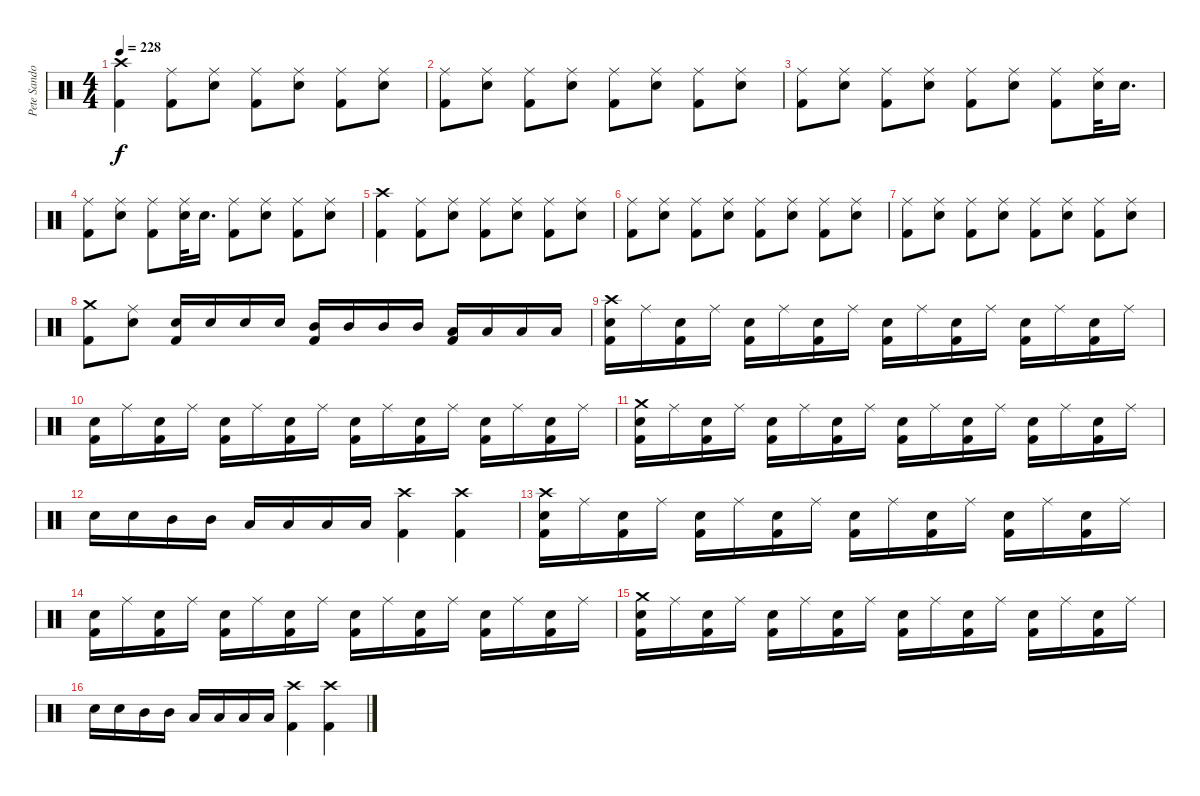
\track ("Pete Sandoval" "Pete Sando") {instrument percussion}
\staff {score}
\articulation defaults
\ts (4 4)
\tempo 228
\clef neutral
\ks c
("Crash high (hit)" "Kick (hit) 2").4{dy f} ("Kick (hit) 2" "Ride (middle)").8 ("Electric Snare (hit)" "Ride (middle)").8 ("Kick (hit) 2" "Ride (middle)").8 ("Electric Snare (hit)" "Ride (middle)").8 ("Kick (hit) 2" "Ride (middle)").8 ("Electric Snare (hit)" "Ride (middle)").8 |
("Kick (hit) 2" "Ride (middle)").8 ("Electric Snare (hit)" "Ride (middle)").8 ("Kick (hit) 2" "Ride (middle)").8 ("Electric Snare (hit)" "Ride (middle)").8 ("Kick (hit) 2" "Ride (middle)").8 ("Electric Snare (hit)" "Ride (middle)").8 ("Kick (hit) 2" "Ride (middle)").8 ("Electric Snare (hit)" "Ride (middle)").8 |
("Kick (hit) 2" "Ride (middle)").8 ("Electric Snare (hit)" "Ride (middle)").8 ("Kick (hit) 2" "Ride (middle)").8 ("Electric Snare (hit)" "Ride (middle)").8 ("Kick (hit) 2" "Ride (middle)").8 ("Electric Snare (hit)" "Ride (middle)").8 ("Kick (hit) 2" "Ride (middle)").8 ("Electric Snare (hit)" "Ride (middle)").32 "Electric Snare (hit)".16{d} |
("Kick (hit) 2" "Ride (middle)").8 ("Electric Snare (hit)" "Ride (middle)").8 ("Kick (hit) 2" "Ride (middle)").8 ("Electric Snare (hit)" "Ride (middle)").32 "Electric Snare (hit)".16{d} ("Kick (hit) 2" "Ride (middle)").8 ("Electric Snare (hit)" "Ride (middle)").8 ("Kick (hit) 2" "Ride (middle)").8 ("Electric Snare (hit)" "Ride (middle)").8 |
("Crash high (hit)" "Kick (hit) 2").4 ("Kick (hit) 2" "Ride (middle)").8 ("Electric Snare (hit)" "Ride (middle)").8 ("Kick (hit) 2" "Ride (middle)").8 ("Electric Snare (hit)" "Ride (middle)").8 ("Kick (hit) 2" "Ride (middle)").8 ("Electric Snare (hit)" "Ride (middle)").8 |
("Kick (hit) 2" "Ride (middle)").8 ("Electric Snare (hit)" "Ride (middle)").8 ("Kick (hit) 2" "Ride (middle)").8 ("Electric Snare (hit)" "Ride (middle)").8 ("Kick (hit) 2" "Ride (middle)").8 ("Electric Snare (hit)" "Ride (middle)").8 ("Kick (hit) 2" "Ride (middle)").8 ("Electric Snare (hit)" "Ride (middle)").8 |
("Kick (hit) 2" "Ride (middle)").8 ("Electric Snare (hit)" "Ride (middle)").8 ("Kick (hit) 2" "Ride (middle)").8 ("Electric Snare (hit)" "Ride (middle)").8 ("Kick (hit) 2" "Ride (middle)").8 ("Electric Snare (hit)" "Ride (middle)").8 ("Kick (hit) 2" "Ride (middle)").8 ("Electric Snare (hit)" "Ride (middle)").8 |
("Crash medium (hit)" "Kick (hit) 2").8 ("Electric Snare (hit)" "Ride (middle)").8 ("Kick (hit) 2" "Electric Snare (hit)").16 "Electric Snare (hit)".16 "Electric Snare (hit)".16 "Electric Snare (hit)".16 ("Kick (hit) 2" "Mid Tom (hit)").16 "Mid Tom (hit)".16 "Mid Tom (hit)".16 "Mid Tom (hit)".16 ("Kick (hit) 2" "Low Tom (hit)").16 "Low Tom (hit)".16 "Low Tom (hit)".16 "Low Tom (hit)".16 |
("Crash high (hit)" "Kick (hit) 2" "Electric Snare (hit)").16 "Ride (middle)".16 ("Kick (hit) 2" "Electric Snare (hit)").16 "Ride (middle)".16 ("Kick (hit) 2" "Electric Snare (hit)").16 "Ride (middle)".16 ("Kick (hit) 2" "Electric Snare (hit)").16 "Ride (middle)".16 ("Kick (hit) 2" "Electric Snare (hit)").16 "Ride (middle)".16 ("Kick (hit) 2" "Electric Snare (hit)").16 "Ride (middle)".16 ("Kick (hit) 2" "Electric Snare (hit)").16 "Ride (middle)".16 ("Kick (hit) 2" "Electric Snare (hit)").16 "Ride (middle)".16 |
("Kick (hit) 2" "Electric Snare (hit)").16 "Ride (middle)".16 ("Kick (hit) 2" "Electric Snare (hit)").16 "Ride (middle)".16 ("Kick (hit) 2" "Electric Snare (hit)").16 "Ride (middle)".16 ("Kick (hit) 2" "Electric Snare (hit)").16 "Ride (middle)".16 ("Kick (hit) 2" "Electric Snare (hit)").16 "Ride (middle)".16 ("Kick (hit) 2" "Electric Snare (hit)").16 "Ride (middle)".16 ("Kick (hit) 2" "Electric Snare (hit)").16 "Ride (middle)".16 ("Kick (hit) 2" "Electric Snare (hit)").16 "Ride (middle)".16 |
("Crash medium (hit)" "Kick (hit) 2" "Electric Snare (hit)").16 "Ride (middle)".16 ("Kick (hit) 2" "Electric Snare (hit)").16 "Ride (middle)".16 ("Kick (hit) 2" "Electric Snare (hit)").16 "Ride (middle)".16 ("Kick (hit) 2" "Electric Snare (hit)").16 "Ride (middle)".16 ("Kick (hit) 2" "Electric Snare (hit)").16 "Ride (middle)".16 ("Kick (hit) 2" "Electric Snare (hit)").16 "Ride (middle)".16 ("Kick (hit) 2" "Electric Snare (hit)").16 "Ride (middle)".16 ("Kick (hit) 2" "Electric Snare (hit)").16 "Ride (middle)".16 |
"Electric Snare (hit)".16 "Electric Snare (hit)".16 "Mid Tom (hit)".16 "Mid Tom (hit)".16 "Low Tom (hit)".16 "Low Tom (hit)".16 "Low Tom (hit)".16 "Low Tom (hit)".16 ("Crash high (hit)" "Kick (hit) 2").4 ("Crash high (hit)" "Kick (hit) 2").4 |
("Crash high (hit)" "Kick (hit) 2" "Electric Snare (hit)").16 "Ride (middle)".16 ("Kick (hit) 2" "Electric Snare (hit)").16 "Ride (middle)".16 ("Kick (hit) 2" "Electric Snare (hit)").16 "Ride (middle)".16 ("Kick (hit) 2" "Electric Snare (hit)").16 "Ride (middle)".16 ("Kick (hit) 2" "Electric Snare (hit)").16 "Ride (middle)".16 ("Kick (hit) 2" "Electric Snare (hit)").16 "Ride (middle)".16 ("Kick (hit) 2" "Electric Snare (hit)").16 "Ride (middle)".16 ("Kick (hit) 2" "Electric Snare (hit)").16 "Ride (middle)".16 |
("Kick (hit) 2" "Electric Snare (hit)").16 "Ride (middle)".16 ("Kick (hit) 2" "Electric Snare (hit)").16 "Ride (middle)".16 ("Kick (hit) 2" "Electric Snare (hit)").16 "Ride (middle)".16 ("Kick (hit) 2" "Electric Snare (hit)").16 "Ride (middle)".16 ("Kick (hit) 2" "Electric Snare (hit)").16 "Ride (middle)".16 ("Kick (hit) 2" "Electric Snare (hit)").16 "Ride (middle)".16 ("Kick (hit) 2" "Electric Snare (hit)").16 "Ride (middle)".16 ("Kick (hit) 2" "Electric Snare (hit)").16 "Ride (middle)".16 |
("Crash medium (hit)" "Kick (hit) 2" "Electric Snare (hit)").16 "Ride (middle)".16 ("Kick (hit) 2" "Electric Snare (hit)").16 "Ride (middle)".16 ("Kick (hit) 2" "Electric Snare (hit)").16 "Ride (middle)".16 ("Kick (hit) 2" "Electric Snare (hit)").16 "Ride (middle)".16 ("Kick (hit) 2" "Electric Snare (hit)").16 "Ride (middle)".16 ("Kick (hit) 2" "Electric Snare (hit)").16 "Ride (middle)".16 ("Kick (hit) 2" "Electric Snare (hit)").16 "Ride (middle)".16 ("Kick (hit) 2" "Electric Snare (hit)").16 "Ride (middle)".16 |
"Electric Snare (hit)".16 "Electric Snare (hit)".16 "Mid Tom (hit)".16 "Mid Tom (hit)".16 "Low Tom (hit)".16 "Low Tom (hit)".16 "Low Tom (hit)".16 "Low Tom (hit)".16 ("Crash high (hit)" "Kick (hit) 2").4 ("Crash high (hit)" "Kick (hit) 2").4
